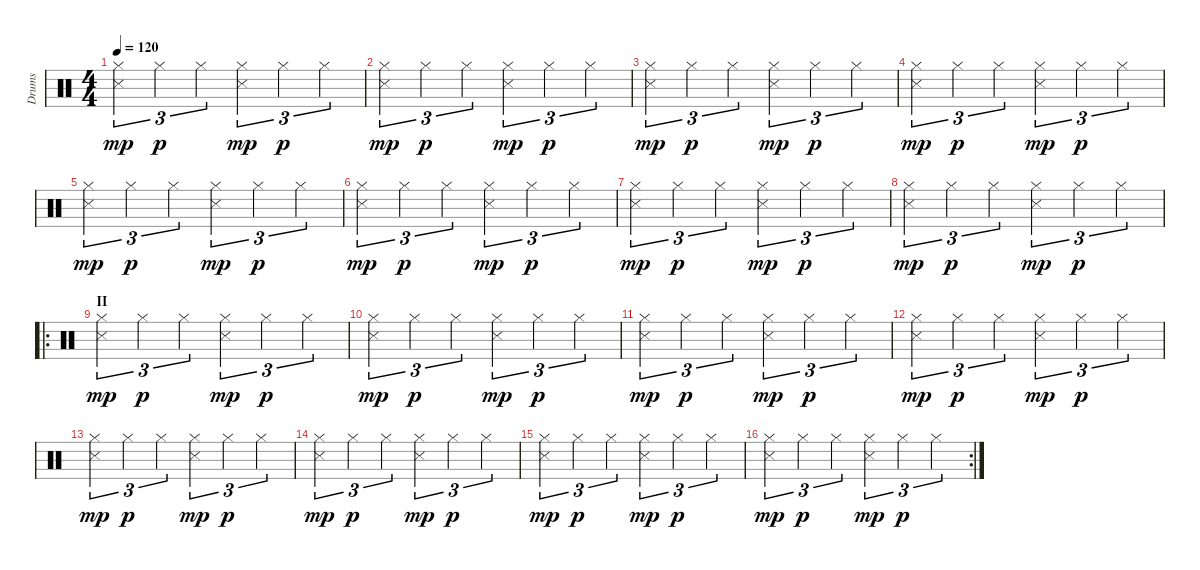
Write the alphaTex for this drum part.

\track ("Drums" "Drums") {instrument percussion}
\staff {score}
\articulation defaults
\ts (4 4)
\tempo 120
\clef neutral
\ks c
("Hi-Hat (closed)" "Snare (side stick) 3").4{tu (3 2) dy mp} "Hi-Hat (closed)".4{tu (3 2) dy p} "Hi-Hat (closed)".4{tu (3 2)} ("Hi-Hat (closed)" "Snare (side stick) 3").4{tu (3 2) dy mp} "Hi-Hat (closed)".4{tu (3 2) dy p} "Hi-Hat (closed)".4{tu (3 2)} |
("Hi-Hat (closed)" "Snare (side stick) 3").4{tu (3 2) dy mp} "Hi-Hat (closed)".4{tu (3 2) dy p} "Hi-Hat (closed)".4{tu (3 2)} ("Hi-Hat (closed)" "Snare (side stick) 3").4{tu (3 2) dy mp} "Hi-Hat (closed)".4{tu (3 2) dy p} "Hi-Hat (closed)".4{tu (3 2)} |
("Hi-Hat (closed)" "Snare (side stick) 3").4{tu (3 2) dy mp} "Hi-Hat (closed)".4{tu (3 2) dy p} "Hi-Hat (closed)".4{tu (3 2)} ("Hi-Hat (closed)" "Snare (side stick) 3").4{tu (3 2) dy mp} "Hi-Hat (closed)".4{tu (3 2) dy p} "Hi-Hat (closed)".4{tu (3 2)} |
("Hi-Hat (closed)" "Snare (side stick) 3").4{tu (3 2) dy mp} "Hi-Hat (closed)".4{tu (3 2) dy p} "Hi-Hat (closed)".4{tu (3 2)} ("Hi-Hat (closed)" "Snare (side stick) 3").4{tu (3 2) dy mp} "Hi-Hat (closed)".4{tu (3 2) dy p} "Hi-Hat (closed)".4{tu (3 2)} |
("Hi-Hat (closed)" "Snare (side stick) 3").4{tu (3 2) dy mp} "Hi-Hat (closed)".4{tu (3 2) dy p} "Hi-Hat (closed)".4{tu (3 2)} ("Hi-Hat (closed)" "Snare (side stick) 3").4{tu (3 2) dy mp} "Hi-Hat (closed)".4{tu (3 2) dy p} "Hi-Hat (closed)".4{tu (3 2)} |
("Hi-Hat (closed)" "Snare (side stick) 3").4{tu (3 2) dy mp} "Hi-Hat (closed)".4{tu (3 2) dy p} "Hi-Hat (closed)".4{tu (3 2)} ("Hi-Hat (closed)" "Snare (side stick) 3").4{tu (3 2) dy mp} "Hi-Hat (closed)".4{tu (3 2) dy p} "Hi-Hat (closed)".4{tu (3 2)} |
("Hi-Hat (closed)" "Snare (side stick) 3").4{tu (3 2) dy mp} "Hi-Hat (closed)".4{tu (3 2) dy p} "Hi-Hat (closed)".4{tu (3 2)} ("Hi-Hat (closed)" "Snare (side stick) 3").4{tu (3 2) dy mp} "Hi-Hat (closed)".4{tu (3 2) dy p} "Hi-Hat (closed)".4{tu (3 2)} |
("Hi-Hat (closed)" "Snare (side stick) 3").4{tu (3 2) dy mp} "Hi-Hat (closed)".4{tu (3 2) dy p} "Hi-Hat (closed)".4{tu (3 2)} ("Hi-Hat (closed)" "Snare (side stick) 3").4{tu (3 2) dy mp} "Hi-Hat (closed)".4{tu (3 2) dy p} "Hi-Hat (closed)".4{tu (3 2)} |
\ro
\section ("" "II")
("Hi-Hat (closed)" "Snare (side stick) 3").4{tu (3 2) dy mp} "Hi-Hat (closed)".4{tu (3 2) dy p} "Hi-Hat (closed)".4{tu (3 2)} ("Hi-Hat (closed)" "Snare (side stick) 3").4{tu (3 2) dy mp} "Hi-Hat (closed)".4{tu (3 2) dy p} "Hi-Hat (closed)".4{tu (3 2)} |
("Hi-Hat (closed)" "Snare (side stick) 3").4{tu (3 2) dy mp} "Hi-Hat (closed)".4{tu (3 2) dy p} "Hi-Hat (closed)".4{tu (3 2)} ("Hi-Hat (closed)" "Snare (side stick) 3").4{tu (3 2) dy mp} "Hi-Hat (closed)".4{tu (3 2) dy p} "Hi-Hat (closed)".4{tu (3 2)} |
("Hi-Hat (closed)" "Snare (side stick) 3").4{tu (3 2) dy mp} "Hi-Hat (closed)".4{tu (3 2) dy p} "Hi-Hat (closed)".4{tu (3 2)} ("Hi-Hat (closed)" "Snare (side stick) 3").4{tu (3 2) dy mp} "Hi-Hat (closed)".4{tu (3 2) dy p} "Hi-Hat (closed)".4{tu (3 2)} |
("Hi-Hat (closed)" "Snare (side stick) 3").4{tu (3 2) dy mp} "Hi-Hat (closed)".4{tu (3 2) dy p} "Hi-Hat (closed)".4{tu (3 2)} ("Hi-Hat (closed)" "Snare (side stick) 3").4{tu (3 2) dy mp} "Hi-Hat (closed)".4{tu (3 2) dy p} "Hi-Hat (closed)".4{tu (3 2)} |
("Hi-Hat (closed)" "Snare (side stick) 3").4{tu (3 2) dy mp} "Hi-Hat (closed)".4{tu (3 2) dy p} "Hi-Hat (closed)".4{tu (3 2)} ("Hi-Hat (closed)" "Snare (side stick) 3").4{tu (3 2) dy mp} "Hi-Hat (closed)".4{tu (3 2) dy p} "Hi-Hat (closed)".4{tu (3 2)} |
("Hi-Hat (closed)" "Snare (side stick) 3").4{tu (3 2) dy mp} "Hi-Hat (closed)".4{tu (3 2) dy p} "Hi-Hat (closed)".4{tu (3 2)} ("Hi-Hat (closed)" "Snare (side stick) 3").4{tu (3 2) dy mp} "Hi-Hat (closed)".4{tu (3 2) dy p} "Hi-Hat (closed)".4{tu (3 2)} |
("Hi-Hat (closed)" "Snare (side stick) 3").4{tu (3 2) dy mp} "Hi-Hat (closed)".4{tu (3 2) dy p} "Hi-Hat (closed)".4{tu (3 2)} ("Hi-Hat (closed)" "Snare (side stick) 3").4{tu (3 2) dy mp} "Hi-Hat (closed)".4{tu (3 2) dy p} "Hi-Hat (closed)".4{tu (3 2)} |
\rc 2
("Hi-Hat (closed)" "Snare (side stick) 3").4{tu (3 2) dy mp} "Hi-Hat (closed)".4{tu (3 2) dy p} "Hi-Hat (closed)".4{tu (3 2)} ("Hi-Hat (closed)" "Snare (side stick) 3").4{tu (3 2) dy mp} "Hi-Hat (closed)".4{tu (3 2) dy p} "Hi-Hat (closed)".4{tu (3 2)}
